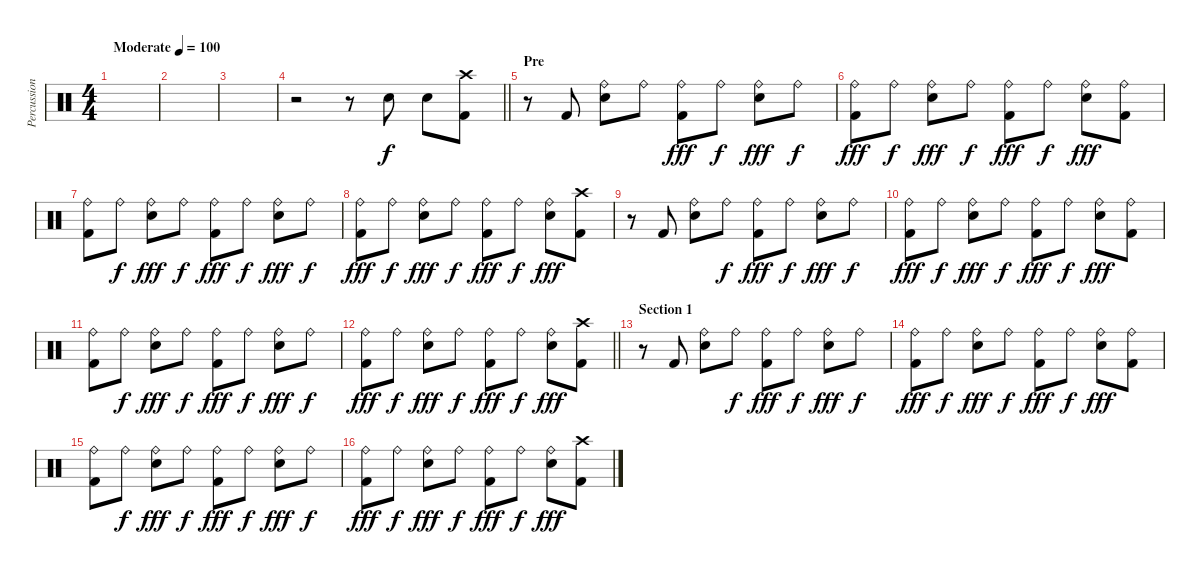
\track ("Percussion" "Percussion") {instrument percussion}
\staff {score}
\articulation defaults
\ts (4 4)
\tempo (100 "Moderate")
\clef neutral
\ks c
|
|
|
\barLineRight lightlight
r.2 r.8 "Electric Snare (hit)".8 "Electric Snare (hit)".8 ("Crash high (hit)" "Kick (hit) 2").8 |
\section ("" "Pre")
r.8 "Kick (hit) 2".8 ("Ride (bell)" "Electric Snare (hit)").8 "Ride (bell)".8{dy f} ("Ride (bell)" "Kick (hit) 2").8{dy fff} "Ride (bell)".8{dy f} ("Ride (bell)" "Electric Snare (hit)").8{dy fff} "Ride (bell)".8{dy f} |
("Ride (bell)" "Kick (hit) 2").8{dy fff} "Ride (bell)".8{dy f} ("Ride (bell)" "Electric Snare (hit)").8{dy fff} "Ride (bell)".8{dy f} ("Ride (bell)" "Kick (hit) 2").8{dy fff} "Ride (bell)".8{dy f} ("Ride (bell)" "Electric Snare (hit)").8{dy fff} ("Ride (bell)" "Kick (hit) 2").8 |
("Ride (bell)" "Kick (hit) 2").8 "Ride (bell)".8{dy f} ("Ride (bell)" "Electric Snare (hit)").8{dy fff} "Ride (bell)".8{dy f} ("Ride (bell)" "Kick (hit) 2").8{dy fff} "Ride (bell)".8{dy f} ("Ride (bell)" "Electric Snare (hit)").8{dy fff} "Ride (bell)".8{dy f} |
("Ride (bell)" "Kick (hit) 2").8{dy fff} "Ride (bell)".8{dy f} ("Ride (bell)" "Electric Snare (hit)").8{dy fff} "Ride (bell)".8{dy f} ("Ride (bell)" "Kick (hit) 2").8{dy fff} "Ride (bell)".8{dy f} ("Ride (bell)" "Electric Snare (hit)").8{dy fff} ("Crash high (hit)" "Kick (hit) 2").8 |
r.8 "Kick (hit) 2".8 ("Ride (bell)" "Electric Snare (hit)").8 "Ride (bell)".8{dy f} ("Ride (bell)" "Kick (hit) 2").8{dy fff} "Ride (bell)".8{dy f} ("Ride (bell)" "Electric Snare (hit)").8{dy fff} "Ride (bell)".8{dy f} |
("Ride (bell)" "Kick (hit) 2").8{dy fff} "Ride (bell)".8{dy f} ("Ride (bell)" "Electric Snare (hit)").8{dy fff} "Ride (bell)".8{dy f} ("Ride (bell)" "Kick (hit) 2").8{dy fff} "Ride (bell)".8{dy f} ("Ride (bell)" "Electric Snare (hit)").8{dy fff} ("Ride (bell)" "Kick (hit) 2").8 |
("Ride (bell)" "Kick (hit) 2").8 "Ride (bell)".8{dy f} ("Ride (bell)" "Electric Snare (hit)").8{dy fff} "Ride (bell)".8{dy f} ("Ride (bell)" "Kick (hit) 2").8{dy fff} "Ride (bell)".8{dy f} ("Ride (bell)" "Electric Snare (hit)").8{dy fff} "Ride (bell)".8{dy f} |
\barLineRight lightlight
("Ride (bell)" "Kick (hit) 2").8{dy fff} "Ride (bell)".8{dy f} ("Ride (bell)" "Electric Snare (hit)").8{dy fff} "Ride (bell)".8{dy f} ("Ride (bell)" "Kick (hit) 2").8{dy fff} "Ride (bell)".8{dy f} ("Ride (bell)" "Electric Snare (hit)").8{dy fff} ("Crash high (hit)" "Kick (hit) 2").8 |
\section ("" "Section 1")
r.8 "Kick (hit) 2".8 ("Ride (bell)" "Electric Snare (hit)").8 "Ride (bell)".8{dy f} ("Ride (bell)" "Kick (hit) 2").8{dy fff} "Ride (bell)".8{dy f} ("Ride (bell)" "Electric Snare (hit)").8{dy fff} "Ride (bell)".8{dy f} |
("Ride (bell)" "Kick (hit) 2").8{dy fff} "Ride (bell)".8{dy f} ("Ride (bell)" "Electric Snare (hit)").8{dy fff} "Ride (bell)".8{dy f} ("Ride (bell)" "Kick (hit) 2").8{dy fff} "Ride (bell)".8{dy f} ("Ride (bell)" "Electric Snare (hit)").8{dy fff} ("Ride (bell)" "Kick (hit) 2").8 |
("Ride (bell)" "Kick (hit) 2").8 "Ride (bell)".8{dy f} ("Ride (bell)" "Electric Snare (hit)").8{dy fff} "Ride (bell)".8{dy f} ("Ride (bell)" "Kick (hit) 2").8{dy fff} "Ride (bell)".8{dy f} ("Ride (bell)" "Electric Snare (hit)").8{dy fff} "Ride (bell)".8{dy f} |
("Ride (bell)" "Kick (hit) 2").8{dy fff} "Ride (bell)".8{dy f} ("Ride (bell)" "Electric Snare (hit)").8{dy fff} "Ride (bell)".8{dy f} ("Ride (bell)" "Kick (hit) 2").8{dy fff} "Ride (bell)".8{dy f} ("Ride (bell)" "Electric Snare (hit)").8{dy fff} ("Crash high (hit)" "Kick (hit) 2").8
